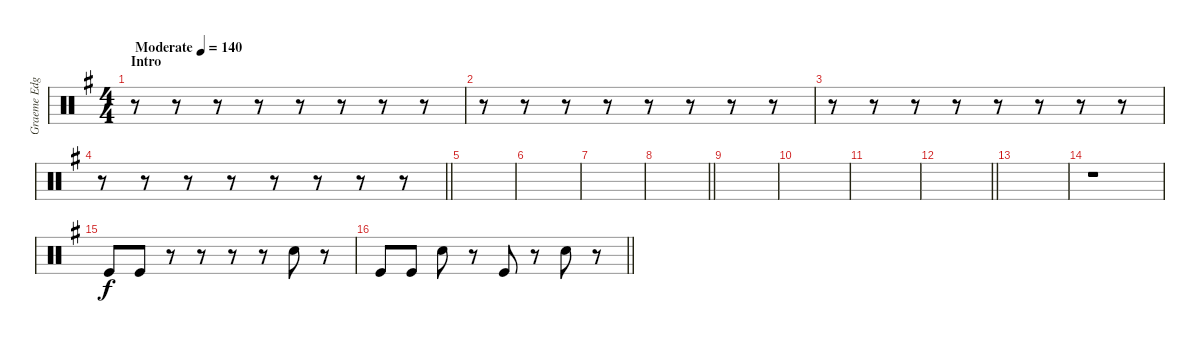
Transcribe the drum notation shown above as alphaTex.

\track ("Graeme Edge" "Graeme Edg") {instrument percussion}
\staff {score}
\articulation defaults
\ts (4 4)
\section ("" "Intro")
\tempo (140 "Moderate")
\clef neutral
\ks g
r.8{dy f} r.8 r.8 r.8 r.8 r.8 r.8 r.8 |
r.8 r.8 r.8 r.8 r.8 r.8 r.8 r.8 |
r.8 r.8 r.8 r.8 r.8 r.8 r.8 r.8 |
\barLineRight lightlight
r.8 r.8 r.8 r.8 r.8 r.8 r.8 r.8 |
\section ("" "")
|
|
|
\barLineRight lightlight
|
\section ("" "")
|
|
|
\barLineRight lightlight
|
\section ("" "")
|
r.1{volume 1} |
"Kick (hit)".8{volume 14} "Kick (hit)".8 r.8 r.8 r.8 r.8 "Hand Clap (hit)".8 r.8 |
\barLineRight lightlight "Kick (hit)".8 "Kick (hit)".8 "Snare (hit) 2".8
r.8 "Kick (hit)".8 r.8 "Snare (hit) 2".8 r.8
